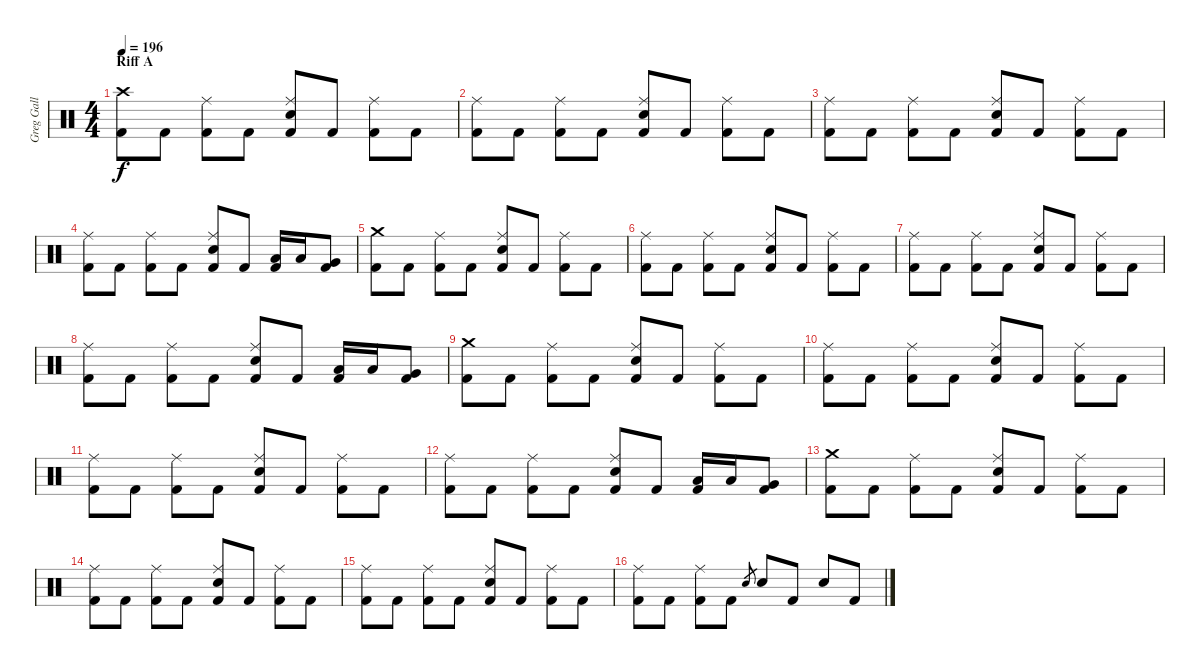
\track ("Greg Gall" "Greg Gall") {instrument percussion}
\staff {score}
\articulation defaults
\ts (4 4)
\section ("" "Riff A")
\tempo 196
\clef neutral
\ks c
("Crash high (hit)" "Kick (hit) 2").8{dy f} "Kick (hit) 2".8 ("Ride (middle)" "Kick (hit) 2").8 "Kick (hit) 2".8 ("Ride (middle)" "Electric Snare (hit)" "Kick (hit) 2").8 "Kick (hit) 2".8 ("Ride (middle)" "Kick (hit) 2").8 "Kick (hit) 2".8 |
("Ride (middle)" "Kick (hit) 2").8 "Kick (hit) 2".8 ("Ride (middle)" "Kick (hit) 2").8 "Kick (hit) 2".8 ("Ride (middle)" "Electric Snare (hit)" "Kick (hit) 2").8 "Kick (hit) 2".8 ("Ride (middle)" "Kick (hit) 2").8 "Kick (hit) 2".8 |
("Ride (middle)" "Kick (hit) 2").8 "Kick (hit) 2".8 ("Ride (middle)" "Kick (hit) 2").8 "Kick (hit) 2".8 ("Ride (middle)" "Electric Snare (hit)" "Kick (hit) 2").8 "Kick (hit) 2".8 ("Ride (middle)" "Kick (hit) 2").8 "Kick (hit) 2".8 |
("Ride (middle)" "Kick (hit) 2").8 "Kick (hit) 2".8 ("Ride (middle)" "Kick (hit) 2").8 "Kick (hit) 2".8 ("Ride (middle)" "Electric Snare (hit)" "Kick (hit) 2").8 "Kick (hit) 2".8 ("Low Tom (hit)" "Kick (hit) 2").16 "Low Tom (hit)".16 ("Very Low Tom (hit)" "Kick (hit) 2").8 |
("Crash medium (hit)" "Kick (hit) 2").8 "Kick (hit) 2".8 ("Ride (middle)" "Kick (hit) 2").8 "Kick (hit) 2".8 ("Ride (middle)" "Electric Snare (hit)" "Kick (hit) 2").8 "Kick (hit) 2".8 ("Ride (middle)" "Kick (hit) 2").8 "Kick (hit) 2".8 |
("Ride (middle)" "Kick (hit) 2").8 "Kick (hit) 2".8 ("Ride (middle)" "Kick (hit) 2").8 "Kick (hit) 2".8 ("Ride (middle)" "Electric Snare (hit)" "Kick (hit) 2").8 "Kick (hit) 2".8 ("Ride (middle)" "Kick (hit) 2").8 "Kick (hit) 2".8 |
("Ride (middle)" "Kick (hit) 2").8 "Kick (hit) 2".8 ("Ride (middle)" "Kick (hit) 2").8 "Kick (hit) 2".8 ("Ride (middle)" "Electric Snare (hit)" "Kick (hit) 2").8 "Kick (hit) 2".8 ("Ride (middle)" "Kick (hit) 2").8 "Kick (hit) 2".8 |
("Ride (middle)" "Kick (hit) 2").8 "Kick (hit) 2".8 ("Ride (middle)" "Kick (hit) 2").8 "Kick (hit) 2".8 ("Ride (middle)" "Electric Snare (hit)" "Kick (hit) 2").8 "Kick (hit) 2".8 ("Low Tom (hit)" "Kick (hit) 2").16 "Low Tom (hit)".16 ("Very Low Tom (hit)" "Kick (hit) 2").8 |
("Crash medium (hit)" "Kick (hit) 2").8 "Kick (hit) 2".8 ("Ride (middle)" "Kick (hit) 2").8 "Kick (hit) 2".8 ("Ride (middle)" "Electric Snare (hit)" "Kick (hit) 2").8 "Kick (hit) 2".8 ("Ride (middle)" "Kick (hit) 2").8 "Kick (hit) 2".8 |
("Ride (middle)" "Kick (hit) 2").8 "Kick (hit) 2".8 ("Ride (middle)" "Kick (hit) 2").8 "Kick (hit) 2".8 ("Ride (middle)" "Electric Snare (hit)" "Kick (hit) 2").8 "Kick (hit) 2".8 ("Ride (middle)" "Kick (hit) 2").8 "Kick (hit) 2".8 |
("Ride (middle)" "Kick (hit) 2").8 "Kick (hit) 2".8 ("Ride (middle)" "Kick (hit) 2").8 "Kick (hit) 2".8 ("Ride (middle)" "Electric Snare (hit)" "Kick (hit) 2").8 "Kick (hit) 2".8 ("Ride (middle)" "Kick (hit) 2").8 "Kick (hit) 2".8 |
("Ride (middle)" "Kick (hit) 2").8 "Kick (hit) 2".8 ("Ride (middle)" "Kick (hit) 2").8 "Kick (hit) 2".8 ("Ride (middle)" "Electric Snare (hit)" "Kick (hit) 2").8 "Kick (hit) 2".8 ("Low Tom (hit)" "Kick (hit) 2").16 "Low Tom (hit)".16 ("Very Low Tom (hit)" "Kick (hit) 2").8 |
("Crash medium (hit)" "Kick (hit) 2").8 "Kick (hit) 2".8 ("Ride (middle)" "Kick (hit) 2").8 "Kick (hit) 2".8 ("Ride (middle)" "Electric Snare (hit)" "Kick (hit) 2").8 "Kick (hit) 2".8 ("Ride (middle)" "Kick (hit) 2").8 "Kick (hit) 2".8 |
("Ride (middle)" "Kick (hit) 2").8 "Kick (hit) 2".8 ("Ride (middle)" "Kick (hit) 2").8 "Kick (hit) 2".8 ("Ride (middle)" "Electric Snare (hit)" "Kick (hit) 2").8 "Kick (hit) 2".8 ("Ride (middle)" "Kick (hit) 2").8 "Kick (hit) 2".8 |
("Ride (middle)" "Kick (hit) 2").8 "Kick (hit) 2".8 ("Ride (middle)" "Kick (hit) 2").8 "Kick (hit) 2".8 ("Ride (middle)" "Electric Snare (hit)" "Kick (hit) 2").8 "Kick (hit) 2".8 ("Ride (middle)" "Kick (hit) 2").8 "Kick (hit) 2".8 |
("Ride (middle)" "Kick (hit) 2").8 "Kick (hit) 2".8 ("Ride (middle)" "Kick (hit) 2").8 "Kick (hit) 2".8 "Electric Snare (hit)".8{gr} "Electric Snare (hit)".8 "Kick (hit) 2".8 "Electric Snare (hit)".8 "Kick (hit) 2".8
